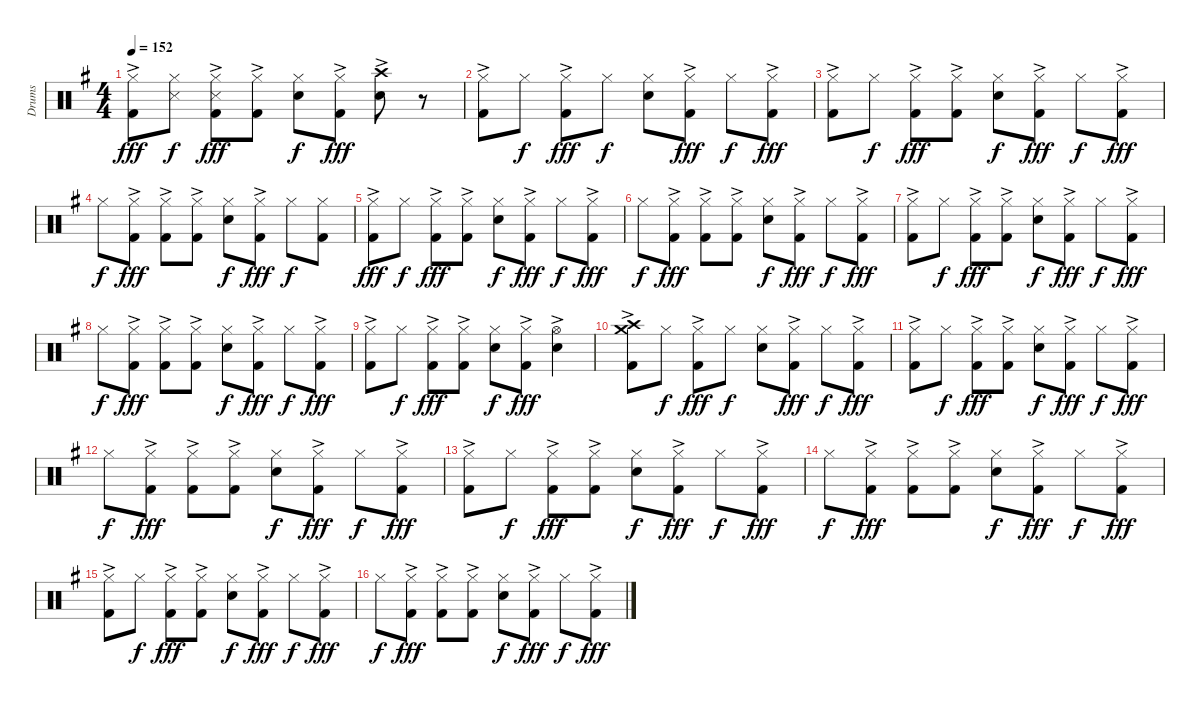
\track ("Drums" "Drums") {instrument percussion}
\staff {score}
\articulation defaults
\ts (4 4)
\tempo 152
\clef neutral
\ks eminor
("Hi-Hat (closed)" "Kick (hit) 2"{ac}).8{dy fff} ("Hi-Hat (closed)" "Snare (side stick) 3").8{dy f} ("Hi-Hat (closed)" "Snare (side stick) 3" "Kick (hit) 2"{ac}).8{dy fff} ("Hi-Hat (closed)" "Kick (hit) 2"{ac}).8 ("Hi-Hat (closed)" "Snare (hit) 2").8{dy f} ("Hi-Hat (closed)" "Kick (hit) 2"{ac}).8{dy fff} ("Crash high (hit)"{ac} "Snare (hit) 2").8 r.8 |
("Hi-Hat (closed)" "Kick (hit) 2"{ac}).8 "Hi-Hat (closed)".8{dy f} ("Hi-Hat (closed)" "Kick (hit) 2"{ac}).8{dy fff} "Hi-Hat (closed)".8{dy f} ("Hi-Hat (closed)" "Snare (hit) 2").8 ("Hi-Hat (closed)" "Kick (hit) 2"{ac}).8{dy fff} "Hi-Hat (closed)".8{dy f} ("Hi-Hat (closed)" "Kick (hit) 2"{ac}).8{dy fff} |
("Hi-Hat (closed)" "Kick (hit) 2"{ac}).8 "Hi-Hat (closed)".8{dy f} ("Hi-Hat (closed)" "Kick (hit) 2"{ac}).8{dy fff} ("Hi-Hat (closed)" "Kick (hit) 2"{ac}).8 ("Hi-Hat (closed)" "Snare (hit) 2").8{dy f} ("Hi-Hat (closed)" "Kick (hit) 2"{ac}).8{dy fff} "Hi-Hat (closed)".8{dy f} ("Hi-Hat (closed)" "Kick (hit) 2"{ac}).8{dy fff} |
"Hi-Hat (closed)".8{dy f} ("Hi-Hat (closed)" "Kick (hit) 2"{ac}).8{dy fff} ("Hi-Hat (closed)" "Kick (hit) 2"{ac}).8 ("Hi-Hat (closed)" "Kick (hit) 2"{ac}).8 ("Hi-Hat (closed)" "Snare (hit) 2").8{dy f} ("Hi-Hat (closed)" "Kick (hit) 2"{ac}).8{dy fff} "Hi-Hat (closed)".8{dy f} ("Hi-Hat (closed)" "Kick (hit) 2").8 |
("Hi-Hat (closed)" "Kick (hit) 2"{ac}).8{dy fff} "Hi-Hat (closed)".8{dy f} ("Hi-Hat (closed)" "Kick (hit) 2"{ac}).8{dy fff} ("Hi-Hat (closed)" "Kick (hit) 2"{ac}).8 ("Hi-Hat (closed)" "Snare (hit) 2").8{dy f} ("Hi-Hat (closed)" "Kick (hit) 2"{ac}).8{dy fff} "Hi-Hat (closed)".8{dy f} ("Hi-Hat (closed)" "Kick (hit) 2"{ac}).8{dy fff} |
"Hi-Hat (closed)".8{dy f} ("Hi-Hat (closed)" "Kick (hit) 2"{ac}).8{dy fff} ("Hi-Hat (closed)" "Kick (hit) 2"{ac}).8 ("Hi-Hat (closed)" "Kick (hit) 2"{ac}).8 ("Hi-Hat (closed)" "Snare (hit) 2").8{dy f} ("Hi-Hat (closed)" "Kick (hit) 2"{ac}).8{dy fff} "Hi-Hat (closed)".8{dy f} ("Hi-Hat (closed)" "Kick (hit) 2"{ac}).8{dy fff} |
("Hi-Hat (closed)" "Kick (hit) 2"{ac}).8 "Hi-Hat (closed)".8{dy f} ("Hi-Hat (closed)" "Kick (hit) 2"{ac}).8{dy fff} ("Hi-Hat (closed)" "Kick (hit) 2"{ac}).8 ("Hi-Hat (closed)" "Snare (hit) 2").8{dy f} ("Hi-Hat (closed)" "Kick (hit) 2"{ac}).8{dy fff} "Hi-Hat (closed)".8{dy f} ("Hi-Hat (closed)" "Kick (hit) 2"{ac}).8{dy fff} |
"Hi-Hat (closed)".8{dy f} ("Hi-Hat (closed)" "Kick (hit) 2"{ac}).8{dy fff} ("Hi-Hat (closed)" "Kick (hit) 2"{ac}).8 ("Hi-Hat (closed)" "Kick (hit) 2"{ac}).8 ("Hi-Hat (closed)" "Snare (hit) 2").8{dy f} ("Hi-Hat (closed)" "Kick (hit) 2"{ac}).8{dy fff} "Hi-Hat (closed)".8{dy f} ("Hi-Hat (closed)" "Kick (hit) 2"{ac}).8{dy fff} |
("Hi-Hat (closed)" "Kick (hit) 2"{ac}).8 "Hi-Hat (closed)".8{dy f} ("Hi-Hat (closed)" "Kick (hit) 2"{ac}).8{dy fff} ("Hi-Hat (closed)" "Kick (hit) 2"{ac}).8 ("Hi-Hat (closed)" "Snare (hit) 2").8{dy f} ("Hi-Hat (closed)" "Kick (hit) 2"{ac}).8{dy fff} ("Hi-Hat (open)"{ac} "Snare (hit) 2").4 |
("Crash high (hit)" "Crash medium (hit)" "Kick (hit) 2"{ac}).8 "Hi-Hat (closed)".8{dy f} ("Hi-Hat (closed)" "Kick (hit) 2"{ac}).8{dy fff} "Hi-Hat (closed)".8{dy f} ("Hi-Hat (closed)" "Snare (hit) 2").8 ("Hi-Hat (closed)" "Kick (hit) 2"{ac}).8{dy fff} "Hi-Hat (closed)".8{dy f} ("Hi-Hat (closed)" "Kick (hit) 2"{ac}).8{dy fff} |
("Hi-Hat (closed)" "Kick (hit) 2"{ac}).8 "Hi-Hat (closed)".8{dy f} ("Hi-Hat (closed)" "Kick (hit) 2"{ac}).8{dy fff} ("Hi-Hat (closed)" "Kick (hit) 2"{ac}).8 ("Hi-Hat (closed)" "Snare (hit) 2").8{dy f} ("Hi-Hat (closed)" "Kick (hit) 2"{ac}).8{dy fff} "Hi-Hat (closed)".8{dy f} ("Hi-Hat (closed)" "Kick (hit) 2"{ac}).8{dy fff} |
"Hi-Hat (closed)".8{dy f} ("Hi-Hat (closed)" "Kick (hit) 2"{ac}).8{dy fff} ("Hi-Hat (closed)" "Kick (hit) 2"{ac}).8 ("Hi-Hat (closed)" "Kick (hit) 2"{ac}).8 ("Hi-Hat (closed)" "Snare (hit) 2").8{dy f} ("Hi-Hat (closed)" "Kick (hit) 2"{ac}).8{dy fff} "Hi-Hat (closed)".8{dy f} ("Hi-Hat (closed)" "Kick (hit) 2"{ac}).8{dy fff} |
("Hi-Hat (closed)" "Kick (hit) 2"{ac}).8 "Hi-Hat (closed)".8{dy f} ("Hi-Hat (closed)" "Kick (hit) 2"{ac}).8{dy fff} ("Hi-Hat (closed)" "Kick (hit) 2"{ac}).8 ("Hi-Hat (closed)" "Snare (hit) 2").8{dy f} ("Hi-Hat (closed)" "Kick (hit) 2"{ac}).8{dy fff} "Hi-Hat (closed)".8{dy f} ("Hi-Hat (closed)" "Kick (hit) 2"{ac}).8{dy fff} |
"Hi-Hat (closed)".8{dy f} ("Hi-Hat (closed)" "Kick (hit) 2"{ac}).8{dy fff} ("Hi-Hat (closed)" "Kick (hit) 2"{ac}).8 ("Hi-Hat (closed)" "Kick (hit) 2"{ac}).8 ("Hi-Hat (closed)" "Snare (hit) 2").8{dy f} ("Hi-Hat (closed)" "Kick (hit) 2"{ac}).8{dy fff} "Hi-Hat (closed)".8{dy f} ("Hi-Hat (closed)" "Kick (hit) 2"{ac}).8{dy fff} |
("Hi-Hat (closed)" "Kick (hit) 2"{ac}).8 "Hi-Hat (closed)".8{dy f} ("Hi-Hat (closed)" "Kick (hit) 2"{ac}).8{dy fff} ("Hi-Hat (closed)" "Kick (hit) 2"{ac}).8 ("Hi-Hat (closed)" "Snare (hit) 2").8{dy f} ("Hi-Hat (closed)" "Kick (hit) 2"{ac}).8{dy fff} "Hi-Hat (closed)".8{dy f} ("Hi-Hat (closed)" "Kick (hit) 2"{ac}).8{dy fff} |
"Hi-Hat (closed)".8{dy f} ("Hi-Hat (closed)" "Kick (hit) 2"{ac}).8{dy fff} ("Hi-Hat (closed)" "Kick (hit) 2"{ac}).8 ("Hi-Hat (closed)" "Kick (hit) 2"{ac}).8 ("Hi-Hat (closed)" "Snare (hit) 2").8{dy f} ("Hi-Hat (closed)" "Kick (hit) 2"{ac}).8{dy fff} "Hi-Hat (closed)".8{dy f} ("Hi-Hat (closed)" "Kick (hit) 2"{ac}).8{dy fff}
